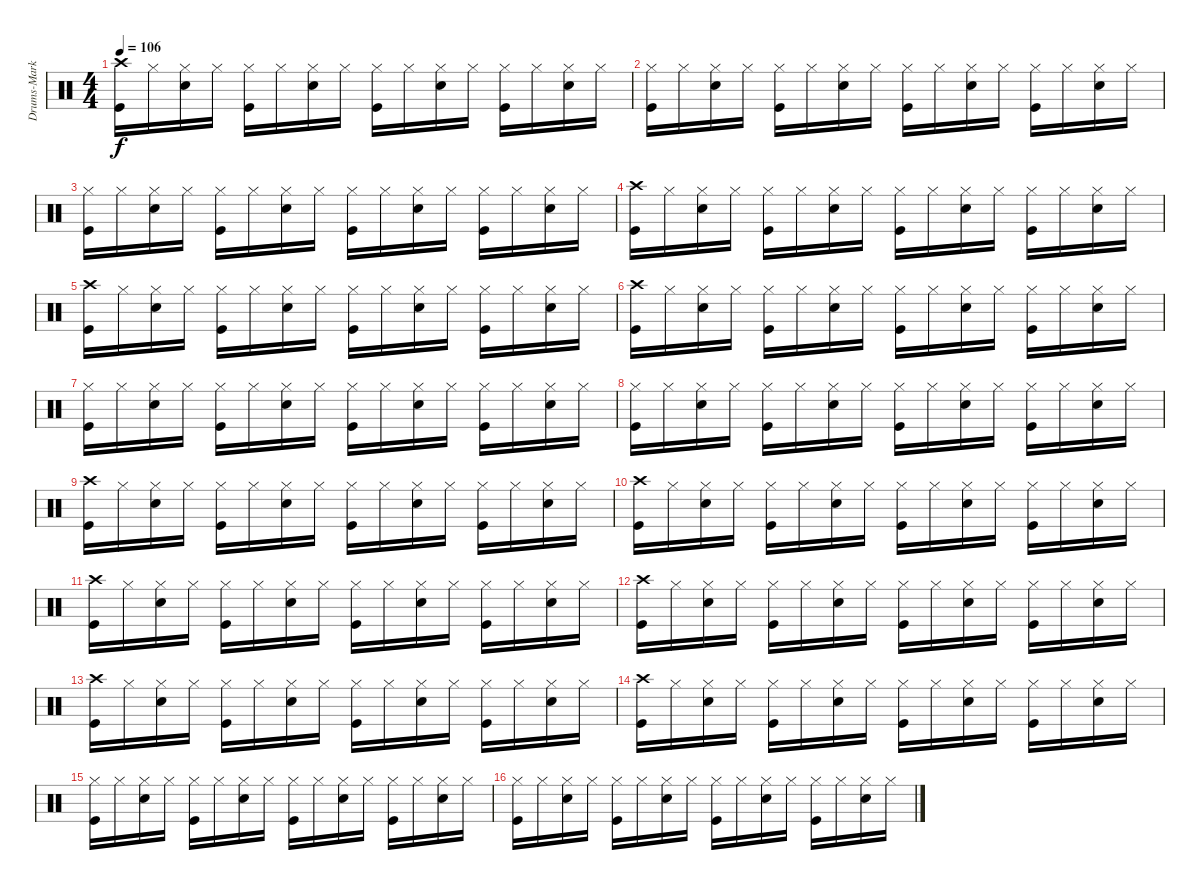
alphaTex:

\track ("Drums-Marky Ramone" "Drums-Mark") {instrument percussion}
\staff {score}
\articulation defaults
\ts (4 4)
\tempo 106
\clef neutral
\ks c
("Crash high (hit)" "Kick (hit)").16{dy f} "Hi-Hat (closed)".16 ("Hi-Hat (closed)" "Electric Snare (hit)").16 "Hi-Hat (closed)".16 ("Hi-Hat (closed)" "Kick (hit)").16 "Hi-Hat (closed)".16 ("Hi-Hat (closed)" "Electric Snare (hit)").16 "Hi-Hat (closed)".16 ("Hi-Hat (closed)" "Kick (hit)").16 "Hi-Hat (closed)".16 ("Hi-Hat (closed)" "Electric Snare (hit)").16 "Hi-Hat (closed)".16 ("Hi-Hat (closed)" "Kick (hit)").16 "Hi-Hat (closed)".16 ("Hi-Hat (closed)" "Electric Snare (hit)").16 "Hi-Hat (closed)".16 |
("Hi-Hat (closed)" "Kick (hit)").16 "Hi-Hat (closed)".16 ("Hi-Hat (closed)" "Electric Snare (hit)").16 "Hi-Hat (closed)".16 ("Hi-Hat (closed)" "Kick (hit)").16 "Hi-Hat (closed)".16 ("Hi-Hat (closed)" "Electric Snare (hit)").16 "Hi-Hat (closed)".16 ("Hi-Hat (closed)" "Kick (hit)").16 "Hi-Hat (closed)".16 ("Hi-Hat (closed)" "Electric Snare (hit)").16 "Hi-Hat (closed)".16 ("Hi-Hat (closed)" "Kick (hit)").16 "Hi-Hat (closed)".16 ("Hi-Hat (closed)" "Electric Snare (hit)").16 "Hi-Hat (closed)".16 |
("Hi-Hat (closed)" "Kick (hit)").16 "Hi-Hat (closed)".16 ("Hi-Hat (closed)" "Electric Snare (hit)").16 "Hi-Hat (closed)".16 ("Hi-Hat (closed)" "Kick (hit)").16 "Hi-Hat (closed)".16 ("Hi-Hat (closed)" "Electric Snare (hit)").16 "Hi-Hat (closed)".16 ("Hi-Hat (closed)" "Kick (hit)").16 "Hi-Hat (closed)".16 ("Hi-Hat (closed)" "Electric Snare (hit)").16 "Hi-Hat (closed)".16 ("Hi-Hat (closed)" "Kick (hit)").16 "Hi-Hat (closed)".16 ("Hi-Hat (closed)" "Electric Snare (hit)").16 "Hi-Hat (closed)".16 |
("Crash high (hit)" "Kick (hit)").16 "Hi-Hat (closed)".16 ("Hi-Hat (closed)" "Electric Snare (hit)").16 "Hi-Hat (closed)".16 ("Hi-Hat (closed)" "Kick (hit)").16 "Hi-Hat (closed)".16 ("Hi-Hat (closed)" "Electric Snare (hit)").16 "Hi-Hat (closed)".16 ("Hi-Hat (closed)" "Kick (hit)").16 "Hi-Hat (closed)".16 ("Hi-Hat (closed)" "Electric Snare (hit)").16 "Hi-Hat (closed)".16 ("Hi-Hat (closed)" "Kick (hit)").16 "Hi-Hat (closed)".16 ("Hi-Hat (closed)" "Electric Snare (hit)").16 "Hi-Hat (closed)".16 |
("Crash high (hit)" "Kick (hit)").16 "Hi-Hat (closed)".16 ("Hi-Hat (closed)" "Electric Snare (hit)").16 "Hi-Hat (closed)".16 ("Hi-Hat (closed)" "Kick (hit)").16 "Hi-Hat (closed)".16 ("Hi-Hat (closed)" "Electric Snare (hit)").16 "Hi-Hat (closed)".16 ("Hi-Hat (closed)" "Kick (hit)").16 "Hi-Hat (closed)".16 ("Hi-Hat (closed)" "Electric Snare (hit)").16 "Hi-Hat (closed)".16 ("Hi-Hat (closed)" "Kick (hit)").16 "Hi-Hat (closed)".16 ("Hi-Hat (closed)" "Electric Snare (hit)").16 "Hi-Hat (closed)".16 |
("Crash high (hit)" "Kick (hit)").16 "Hi-Hat (closed)".16 ("Hi-Hat (closed)" "Electric Snare (hit)").16 "Hi-Hat (closed)".16 ("Hi-Hat (closed)" "Kick (hit)").16 "Hi-Hat (closed)".16 ("Hi-Hat (closed)" "Electric Snare (hit)").16 "Hi-Hat (closed)".16 ("Hi-Hat (closed)" "Kick (hit)").16 "Hi-Hat (closed)".16 ("Hi-Hat (closed)" "Electric Snare (hit)").16 "Hi-Hat (closed)".16 ("Hi-Hat (closed)" "Kick (hit)").16 "Hi-Hat (closed)".16 ("Hi-Hat (closed)" "Electric Snare (hit)").16 "Hi-Hat (closed)".16 |
("Hi-Hat (closed)" "Kick (hit)").16 "Hi-Hat (closed)".16 ("Hi-Hat (closed)" "Electric Snare (hit)").16 "Hi-Hat (closed)".16 ("Hi-Hat (closed)" "Kick (hit)").16 "Hi-Hat (closed)".16 ("Hi-Hat (closed)" "Electric Snare (hit)").16 "Hi-Hat (closed)".16 ("Hi-Hat (closed)" "Kick (hit)").16 "Hi-Hat (closed)".16 ("Hi-Hat (closed)" "Electric Snare (hit)").16 "Hi-Hat (closed)".16 ("Hi-Hat (closed)" "Kick (hit)").16 "Hi-Hat (closed)".16 ("Hi-Hat (closed)" "Electric Snare (hit)").16 "Hi-Hat (closed)".16 |
("Hi-Hat (closed)" "Kick (hit)").16 "Hi-Hat (closed)".16 ("Hi-Hat (closed)" "Electric Snare (hit)").16 "Hi-Hat (closed)".16 ("Hi-Hat (closed)" "Kick (hit)").16 "Hi-Hat (closed)".16 ("Hi-Hat (closed)" "Electric Snare (hit)").16 "Hi-Hat (closed)".16 ("Hi-Hat (closed)" "Kick (hit)").16 "Hi-Hat (closed)".16 ("Hi-Hat (closed)" "Electric Snare (hit)").16 "Hi-Hat (closed)".16 ("Hi-Hat (closed)" "Kick (hit)").16 "Hi-Hat (closed)".16 ("Hi-Hat (closed)" "Electric Snare (hit)").16 "Hi-Hat (closed)".16 |
("Crash high (hit)" "Kick (hit)").16 "Hi-Hat (closed)".16 ("Hi-Hat (closed)" "Electric Snare (hit)").16 "Hi-Hat (closed)".16 ("Hi-Hat (closed)" "Kick (hit)").16 "Hi-Hat (closed)".16 ("Hi-Hat (closed)" "Electric Snare (hit)").16 "Hi-Hat (closed)".16 ("Hi-Hat (closed)" "Kick (hit)").16 "Hi-Hat (closed)".16 ("Hi-Hat (closed)" "Electric Snare (hit)").16 "Hi-Hat (closed)".16 ("Hi-Hat (closed)" "Kick (hit)").16 "Hi-Hat (closed)".16 ("Hi-Hat (closed)" "Electric Snare (hit)").16 "Hi-Hat (closed)".16 |
("Crash high (hit)" "Kick (hit)").16 "Hi-Hat (closed)".16 ("Hi-Hat (closed)" "Electric Snare (hit)").16 "Hi-Hat (closed)".16 ("Hi-Hat (closed)" "Kick (hit)").16 "Hi-Hat (closed)".16 ("Hi-Hat (closed)" "Electric Snare (hit)").16 "Hi-Hat (closed)".16 ("Hi-Hat (closed)" "Kick (hit)").16 "Hi-Hat (closed)".16 ("Hi-Hat (closed)" "Electric Snare (hit)").16 "Hi-Hat (closed)".16 ("Hi-Hat (closed)" "Kick (hit)").16 "Hi-Hat (closed)".16 ("Hi-Hat (closed)" "Electric Snare (hit)").16 "Hi-Hat (closed)".16 |
("Crash high (hit)" "Kick (hit)").16 "Hi-Hat (closed)".16 ("Hi-Hat (closed)" "Electric Snare (hit)").16 "Hi-Hat (closed)".16 ("Hi-Hat (closed)" "Kick (hit)").16 "Hi-Hat (closed)".16 ("Hi-Hat (closed)" "Electric Snare (hit)").16 "Hi-Hat (closed)".16 ("Hi-Hat (closed)" "Kick (hit)").16 "Hi-Hat (closed)".16 ("Hi-Hat (closed)" "Electric Snare (hit)").16 "Hi-Hat (closed)".16 ("Hi-Hat (closed)" "Kick (hit)").16 "Hi-Hat (closed)".16 ("Hi-Hat (closed)" "Electric Snare (hit)").16 "Hi-Hat (closed)".16 |
("Crash high (hit)" "Kick (hit)").16 "Hi-Hat (closed)".16 ("Hi-Hat (closed)" "Electric Snare (hit)").16 "Hi-Hat (closed)".16 ("Hi-Hat (closed)" "Kick (hit)").16 "Hi-Hat (closed)".16 ("Hi-Hat (closed)" "Electric Snare (hit)").16 "Hi-Hat (closed)".16 ("Hi-Hat (closed)" "Kick (hit)").16 "Hi-Hat (closed)".16 ("Hi-Hat (closed)" "Electric Snare (hit)").16 "Hi-Hat (closed)".16 ("Hi-Hat (closed)" "Kick (hit)").16 "Hi-Hat (closed)".16 ("Hi-Hat (closed)" "Electric Snare (hit)").16 "Hi-Hat (closed)".16 |
("Crash high (hit)" "Kick (hit)").16 "Hi-Hat (closed)".16 ("Hi-Hat (closed)" "Electric Snare (hit)").16 "Hi-Hat (closed)".16 ("Hi-Hat (closed)" "Kick (hit)").16 "Hi-Hat (closed)".16 ("Hi-Hat (closed)" "Electric Snare (hit)").16 "Hi-Hat (closed)".16 ("Hi-Hat (closed)" "Kick (hit)").16 "Hi-Hat (closed)".16 ("Hi-Hat (closed)" "Electric Snare (hit)").16 "Hi-Hat (closed)".16 ("Hi-Hat (closed)" "Kick (hit)").16 "Hi-Hat (closed)".16 ("Hi-Hat (closed)" "Electric Snare (hit)").16 "Hi-Hat (closed)".16 |
("Crash high (hit)" "Kick (hit)").16 "Hi-Hat (closed)".16 ("Hi-Hat (closed)" "Electric Snare (hit)").16 "Hi-Hat (closed)".16 ("Hi-Hat (closed)" "Kick (hit)").16 "Hi-Hat (closed)".16 ("Hi-Hat (closed)" "Electric Snare (hit)").16 "Hi-Hat (closed)".16 ("Hi-Hat (closed)" "Kick (hit)").16 "Hi-Hat (closed)".16 ("Hi-Hat (closed)" "Electric Snare (hit)").16 "Hi-Hat (closed)".16 ("Hi-Hat (closed)" "Kick (hit)").16 "Hi-Hat (closed)".16 ("Hi-Hat (closed)" "Electric Snare (hit)").16 "Hi-Hat (closed)".16 |
("Hi-Hat (closed)" "Kick (hit)").16 "Hi-Hat (closed)".16 ("Hi-Hat (closed)" "Electric Snare (hit)").16 "Hi-Hat (closed)".16 ("Hi-Hat (closed)" "Kick (hit)").16 "Hi-Hat (closed)".16 ("Hi-Hat (closed)" "Electric Snare (hit)").16 "Hi-Hat (closed)".16 ("Hi-Hat (closed)" "Kick (hit)").16 "Hi-Hat (closed)".16 ("Hi-Hat (closed)" "Electric Snare (hit)").16 "Hi-Hat (closed)".16 ("Hi-Hat (closed)" "Kick (hit)").16 "Hi-Hat (closed)".16 ("Hi-Hat (closed)" "Electric Snare (hit)").16 "Hi-Hat (closed)".16 |
("Hi-Hat (closed)" "Kick (hit)").16 "Hi-Hat (closed)".16 ("Hi-Hat (closed)" "Electric Snare (hit)").16 "Hi-Hat (closed)".16 ("Hi-Hat (closed)" "Kick (hit)").16 "Hi-Hat (closed)".16 ("Hi-Hat (closed)" "Electric Snare (hit)").16 "Hi-Hat (closed)".16 ("Hi-Hat (closed)" "Kick (hit)").16 "Hi-Hat (closed)".16 ("Hi-Hat (closed)" "Electric Snare (hit)").16 "Hi-Hat (closed)".16 ("Hi-Hat (closed)" "Kick (hit)").16 "Hi-Hat (closed)".16 ("Hi-Hat (closed)" "Electric Snare (hit)").16 "Hi-Hat (closed)".16
